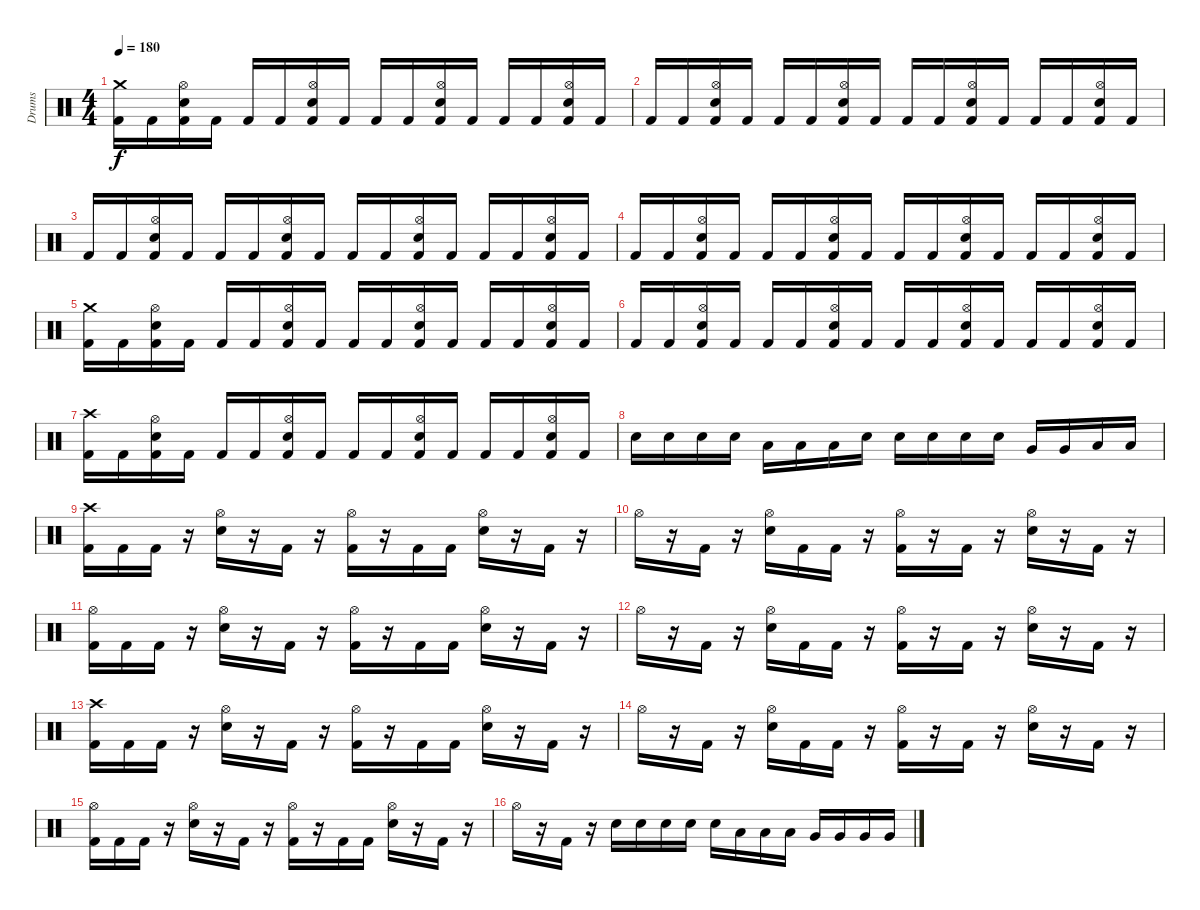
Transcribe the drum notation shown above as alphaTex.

\track ("Drums" "Drums") {instrument percussion}
\staff {score}
\articulation defaults
\ts (4 4)
\tempo 180
\clef neutral
\ks c
("Crash medium (hit)" "Kick (hit) 2").16{dy f} "Kick (hit) 2".16 ("Hi-Hat (open)" "Electric Snare (hit)" "Kick (hit) 2").16 "Kick (hit) 2".16 "Kick (hit) 2".16 "Kick (hit) 2".16 ("Hi-Hat (open)" "Electric Snare (hit)" "Kick (hit) 2").16 "Kick (hit) 2".16 "Kick (hit) 2".16 "Kick (hit) 2".16 ("Hi-Hat (open)" "Electric Snare (hit)" "Kick (hit) 2").16 "Kick (hit) 2".16 "Kick (hit) 2".16 "Kick (hit) 2".16 ("Hi-Hat (open)" "Electric Snare (hit)" "Kick (hit) 2").16 "Kick (hit) 2".16 |
"Kick (hit) 2".16 "Kick (hit) 2".16 ("Hi-Hat (open)" "Electric Snare (hit)" "Kick (hit) 2").16 "Kick (hit) 2".16 "Kick (hit) 2".16 "Kick (hit) 2".16 ("Hi-Hat (open)" "Electric Snare (hit)" "Kick (hit) 2").16 "Kick (hit) 2".16 "Kick (hit) 2".16 "Kick (hit) 2".16 ("Hi-Hat (open)" "Electric Snare (hit)" "Kick (hit) 2").16 "Kick (hit) 2".16 "Kick (hit) 2".16 "Kick (hit) 2".16 ("Hi-Hat (open)" "Electric Snare (hit)" "Kick (hit) 2").16 "Kick (hit) 2".16 |
"Kick (hit) 2".16 "Kick (hit) 2".16 ("Hi-Hat (open)" "Electric Snare (hit)" "Kick (hit) 2").16 "Kick (hit) 2".16 "Kick (hit) 2".16 "Kick (hit) 2".16 ("Hi-Hat (open)" "Electric Snare (hit)" "Kick (hit) 2").16 "Kick (hit) 2".16 "Kick (hit) 2".16 "Kick (hit) 2".16 ("Hi-Hat (open)" "Electric Snare (hit)" "Kick (hit) 2").16 "Kick (hit) 2".16 "Kick (hit) 2".16 "Kick (hit) 2".16 ("Hi-Hat (open)" "Electric Snare (hit)" "Kick (hit) 2").16 "Kick (hit) 2".16 |
"Kick (hit) 2".16 "Kick (hit) 2".16 ("Hi-Hat (open)" "Electric Snare (hit)" "Kick (hit) 2").16 "Kick (hit) 2".16 "Kick (hit) 2".16 "Kick (hit) 2".16 ("Hi-Hat (open)" "Electric Snare (hit)" "Kick (hit) 2").16 "Kick (hit) 2".16 "Kick (hit) 2".16 "Kick (hit) 2".16 ("Hi-Hat (open)" "Electric Snare (hit)" "Kick (hit) 2").16 "Kick (hit) 2".16 "Kick (hit) 2".16 "Kick (hit) 2".16 ("Hi-Hat (open)" "Electric Snare (hit)" "Kick (hit) 2").16 "Kick (hit) 2".16 |
("Crash medium (hit)" "Kick (hit) 2").16 "Kick (hit) 2".16 ("Hi-Hat (open)" "Electric Snare (hit)" "Kick (hit) 2").16 "Kick (hit) 2".16 "Kick (hit) 2".16 "Kick (hit) 2".16 ("Hi-Hat (open)" "Electric Snare (hit)" "Kick (hit) 2").16 "Kick (hit) 2".16 "Kick (hit) 2".16 "Kick (hit) 2".16 ("Hi-Hat (open)" "Electric Snare (hit)" "Kick (hit) 2").16 "Kick (hit) 2".16 "Kick (hit) 2".16 "Kick (hit) 2".16 ("Hi-Hat (open)" "Electric Snare (hit)" "Kick (hit) 2").16 "Kick (hit) 2".16 |
"Kick (hit) 2".16 "Kick (hit) 2".16 ("Hi-Hat (open)" "Electric Snare (hit)" "Kick (hit) 2").16 "Kick (hit) 2".16 "Kick (hit) 2".16 "Kick (hit) 2".16 ("Hi-Hat (open)" "Electric Snare (hit)" "Kick (hit) 2").16 "Kick (hit) 2".16 "Kick (hit) 2".16 "Kick (hit) 2".16 ("Hi-Hat (open)" "Electric Snare (hit)" "Kick (hit) 2").16 "Kick (hit) 2".16 "Kick (hit) 2".16 "Kick (hit) 2".16 ("Hi-Hat (open)" "Electric Snare (hit)" "Kick (hit) 2").16 "Kick (hit) 2".16 |
("Crash high (hit)" "Kick (hit) 2").16 "Kick (hit) 2".16 ("Hi-Hat (open)" "Electric Snare (hit)" "Kick (hit) 2").16 "Kick (hit) 2".16 "Kick (hit) 2".16 "Kick (hit) 2".16 ("Hi-Hat (open)" "Electric Snare (hit)" "Kick (hit) 2").16 "Kick (hit) 2".16 "Kick (hit) 2".16 "Kick (hit) 2".16 ("Hi-Hat (open)" "Electric Snare (hit)" "Kick (hit) 2").16 "Kick (hit) 2".16 "Kick (hit) 2".16 "Kick (hit) 2".16 ("Hi-Hat (open)" "Electric Snare (hit)" "Kick (hit) 2").16 "Kick (hit) 2".16 |
"Electric Snare (hit)".16 "Electric Snare (hit)".16 "Electric Snare (hit)".16 "Electric Snare (hit)".16 "Low Tom (hit)".16 "Low Tom (hit)".16 "Low Tom (hit)".16 "Electric Snare (hit)".16 "Electric Snare (hit)".16 "Electric Snare (hit)".16 "Electric Snare (hit)".16 "Electric Snare (hit)".16 "Very Low Tom (hit)".16 "Very Low Tom (hit)".16 "Low Floor Tom (hit)".16 "Low Floor Tom (hit)".16 |
("Crash high (hit)" "Kick (hit) 2").16 "Kick (hit) 2".16 "Kick (hit) 2".16 r.16 ("Hi-Hat (open)" "Electric Snare (hit)").16 r.16 "Kick (hit) 2".16 r.16 ("Hi-Hat (open)" "Kick (hit) 2").16 r.16 "Kick (hit) 2".16 "Kick (hit) 2".16 ("Hi-Hat (open)" "Electric Snare (hit)").16 r.16 "Kick (hit) 2".16 r.16 |
"Hi-Hat (open)".16 r.16 "Kick (hit) 2".16 r.16 ("Hi-Hat (open)" "Electric Snare (hit)").16 "Kick (hit) 2".16 "Kick (hit) 2".16 r.16 ("Hi-Hat (open)" "Kick (hit) 2").16 r.16 "Kick (hit) 2".16 r.16 ("Hi-Hat (open)" "Electric Snare (hit)").16 r.16 "Kick (hit) 2".16 r.16 |
("Hi-Hat (open)" "Kick (hit) 2").16 "Kick (hit) 2".16 "Kick (hit) 2".16 r.16 ("Hi-Hat (open)" "Electric Snare (hit)").16 r.16 "Kick (hit) 2".16 r.16 ("Hi-Hat (open)" "Kick (hit) 2").16 r.16 "Kick (hit) 2".16 "Kick (hit) 2".16 ("Hi-Hat (open)" "Electric Snare (hit)").16 r.16 "Kick (hit) 2".16 r.16 |
"Hi-Hat (open)".16 r.16 "Kick (hit) 2".16 r.16 ("Hi-Hat (open)" "Electric Snare (hit)").16 "Kick (hit) 2".16 "Kick (hit) 2".16 r.16 ("Hi-Hat (open)" "Kick (hit) 2").16 r.16 "Kick (hit) 2".16 r.16 ("Hi-Hat (open)" "Electric Snare (hit)").16 r.16 "Kick (hit) 2".16 r.16 |
("Crash high (hit)" "Kick (hit) 2").16 "Kick (hit) 2".16 "Kick (hit) 2".16 r.16 ("Hi-Hat (open)" "Electric Snare (hit)").16 r.16 "Kick (hit) 2".16 r.16 ("Hi-Hat (open)" "Kick (hit) 2").16 r.16 "Kick (hit) 2".16 "Kick (hit) 2".16 ("Hi-Hat (open)" "Electric Snare (hit)").16 r.16 "Kick (hit) 2".16 r.16 |
"Hi-Hat (open)".16 r.16 "Kick (hit) 2".16 r.16 ("Hi-Hat (open)" "Electric Snare (hit)").16 "Kick (hit) 2".16 "Kick (hit) 2".16 r.16 ("Hi-Hat (open)" "Kick (hit) 2").16 r.16 "Kick (hit) 2".16 r.16 ("Hi-Hat (open)" "Electric Snare (hit)").16 r.16 "Kick (hit) 2".16 r.16 |
("Hi-Hat (open)" "Kick (hit) 2").16 "Kick (hit) 2".16 "Kick (hit) 2".16 r.16 ("Hi-Hat (open)" "Electric Snare (hit)").16 r.16 "Kick (hit) 2".16 r.16 ("Hi-Hat (open)" "Kick (hit) 2").16 r.16 "Kick (hit) 2".16 "Kick (hit) 2".16 ("Hi-Hat (open)" "Electric Snare (hit)").16 r.16 "Kick (hit) 2".16 r.16 |
"Hi-Hat (open)".16 r.16 "Kick (hit) 2".16 r.16 "Electric Snare (hit)".16 "Electric Snare (hit)".16 "Electric Snare (hit)".16 "Electric Snare (hit)".16 "Electric Snare (hit)".16 "Low Tom (hit)".16 "Low Tom (hit)".16 "Low Tom (hit)".16 "Very Low Tom (hit)".16 "Very Low Tom (hit)".16 "Very Low Tom (hit)".16 "Very Low Tom (hit)".16
